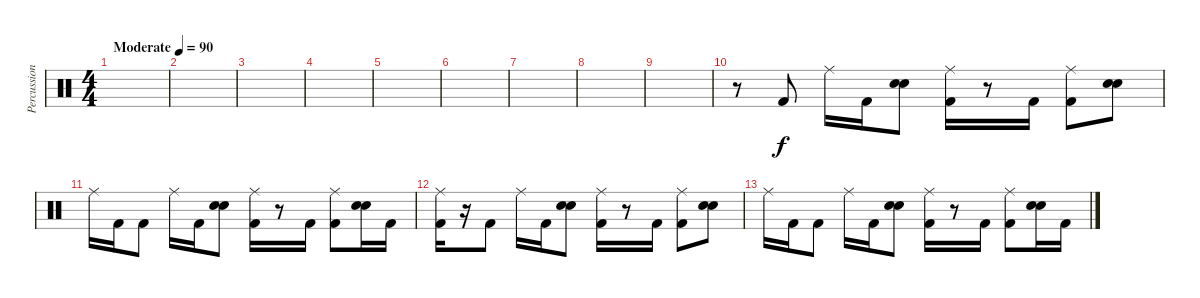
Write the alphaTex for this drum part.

\track ("Percussion" "Percussion") {instrument percussion}
\staff {score}
\articulation defaults
\ts (4 4)
\tempo (90 "Moderate")
\clef neutral
\ks c
|
|
|
|
|
|
|
|
|
r.8 "Kick (hit) 2".8 "Ride (middle)".16 "Kick (hit) 2".16 ("Snare (hit) 2" "Hand Clap (hit)").8 ("Ride (middle)" "Kick (hit) 2").16 r.8 "Kick (hit) 2".16 ("Ride (middle)" "Kick (hit) 2").8 ("Snare (hit) 2" "Hand Clap (hit)").8 |
"Ride (middle)".16 "Kick (hit) 2".16 "Kick (hit) 2".8 "Ride (middle)".16 "Kick (hit) 2".16 ("Snare (hit) 2" "Hand Clap (hit)").8 ("Ride (middle)" "Kick (hit) 2").16 r.8 "Kick (hit) 2".16 ("Ride (middle)" "Kick (hit) 2").8 ("Snare (hit) 2" "Hand Clap (hit)").16 "Kick (hit) 2".16 |
("Ride (middle)" "Kick (hit) 2").16 r.16 "Kick (hit) 2".8 "Ride (middle)".16 "Kick (hit) 2".16 ("Snare (hit) 2" "Hand Clap (hit)").8 ("Ride (middle)" "Kick (hit) 2").16 r.8 "Kick (hit) 2".16 ("Ride (middle)" "Kick (hit) 2").8 ("Snare (hit) 2" "Hand Clap (hit)").8 |
"Ride (middle)".16 "Kick (hit) 2".16 "Kick (hit) 2".8 "Ride (middle)".16 "Kick (hit) 2".16 ("Snare (hit) 2" "Hand Clap (hit)").8 ("Ride (middle)" "Kick (hit) 2").16 r.8 "Kick (hit) 2".16 ("Ride (middle)" "Kick (hit) 2").8 ("Snare (hit) 2" "Hand Clap (hit)").16 "Kick (hit) 2".16
